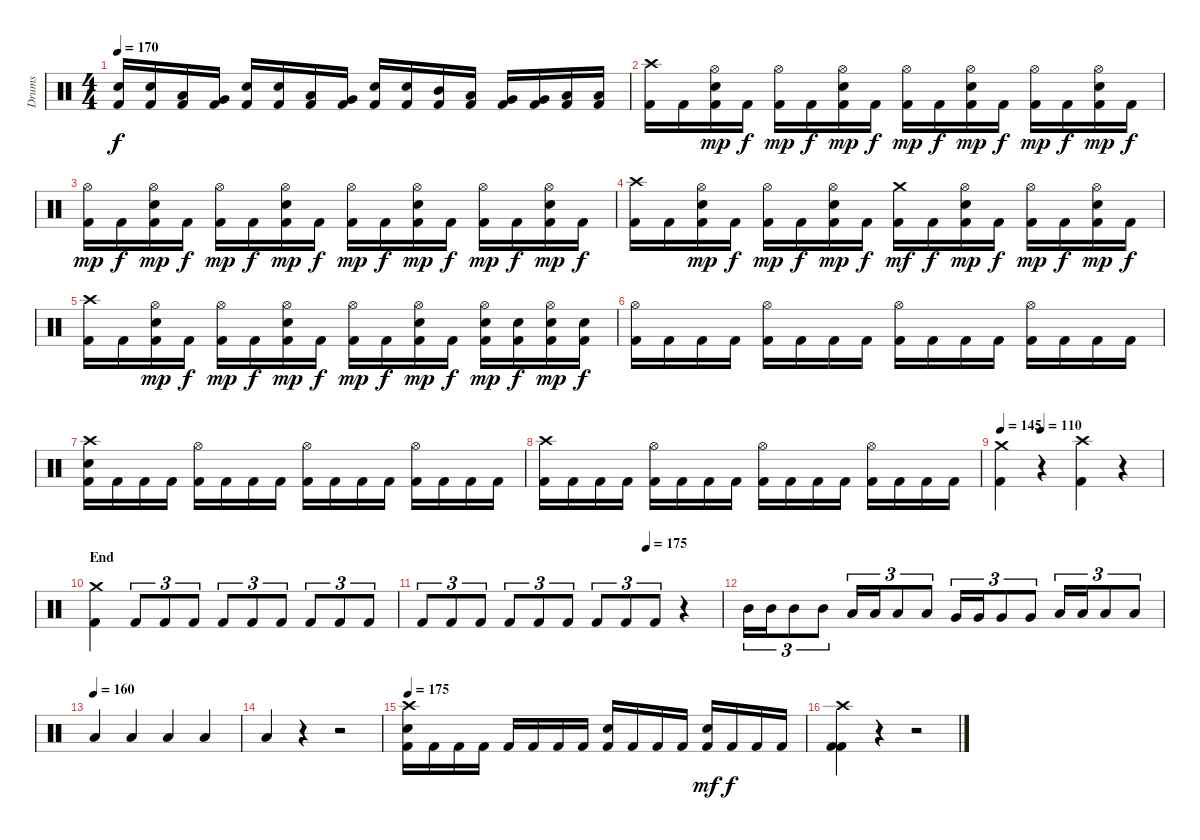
\track ("Drums" "Drums") {instrument percussion}
\staff {score}
\articulation defaults
\ts (4 4)
\tempo 170
\clef neutral
\ks c
("Kick (hit) 2" "Electric Snare (hit)").16{dy f} ("Kick (hit) 2" "Electric Snare (hit)").16 ("Kick (hit) 2" "Low Tom (hit)").16 ("Kick (hit) 2" "Very Low Tom (hit)").16 ("Kick (hit) 2" "Electric Snare (hit)").16 ("Kick (hit) 2" "Electric Snare (hit)").16 ("Kick (hit) 2" "Low Tom (hit)").16 ("Kick (hit) 2" "Very Low Tom (hit)").16 ("Kick (hit) 2" "Electric Snare (hit)").16 ("Kick (hit) 2" "Electric Snare (hit)").16 ("Kick (hit) 2" "Mid Tom (hit)").16 ("Kick (hit) 2" "Low Tom (hit)").16 ("Kick (hit) 2" "Very Low Tom (hit)").16 ("Kick (hit) 2" "Very Low Tom (hit)").16 ("Kick (hit) 2" "Low Floor Tom (hit)").16 ("Kick (hit) 2" "Low Floor Tom (hit)").16 |
("Kick (hit) 2" "Crash high (hit)").16 "Kick (hit) 2".16 ("Kick (hit) 2" "Electric Snare (hit)" "Hi-Hat (open)").16{dy mp} "Kick (hit) 2".16{dy f} ("Kick (hit) 2" "Hi-Hat (open)").16{dy mp} "Kick (hit) 2".16{dy f} ("Kick (hit) 2" "Electric Snare (hit)" "Hi-Hat (open)").16{dy mp} "Kick (hit) 2".16{dy f} ("Kick (hit) 2" "Hi-Hat (open)").16{dy mp} "Kick (hit) 2".16{dy f} ("Kick (hit) 2" "Electric Snare (hit)" "Hi-Hat (open)").16{dy mp} "Kick (hit) 2".16{dy f} ("Kick (hit) 2" "Hi-Hat (open)").16{dy mp} "Kick (hit) 2".16{dy f} ("Kick (hit) 2" "Electric Snare (hit)" "Hi-Hat (open)").16{dy mp} "Kick (hit) 2".16{dy f} |
("Kick (hit) 2" "Hi-Hat (open)").16{dy mp} "Kick (hit) 2".16{dy f} ("Kick (hit) 2" "Electric Snare (hit)" "Hi-Hat (open)").16{dy mp} "Kick (hit) 2".16{dy f} ("Kick (hit) 2" "Hi-Hat (open)").16{dy mp} "Kick (hit) 2".16{dy f} ("Kick (hit) 2" "Electric Snare (hit)" "Hi-Hat (open)").16{dy mp} "Kick (hit) 2".16{dy f} ("Kick (hit) 2" "Hi-Hat (open)").16{dy mp} "Kick (hit) 2".16{dy f} ("Kick (hit) 2" "Electric Snare (hit)" "Hi-Hat (open)").16{dy mp} "Kick (hit) 2".16{dy f} ("Kick (hit) 2" "Hi-Hat (open)").16{dy mp} "Kick (hit) 2".16{dy f} ("Kick (hit) 2" "Electric Snare (hit)" "Hi-Hat (open)").16{dy mp} "Kick (hit) 2".16{dy f} |
("Kick (hit) 2" "Crash high (hit)").16 "Kick (hit) 2".16 ("Kick (hit) 2" "Electric Snare (hit)" "Hi-Hat (open)").16{dy mp} "Kick (hit) 2".16{dy f} ("Kick (hit) 2" "Hi-Hat (open)").16{dy mp} "Kick (hit) 2".16{dy f} ("Kick (hit) 2" "Electric Snare (hit)" "Hi-Hat (open)").16{dy mp} "Kick (hit) 2".16{dy f} ("Kick (hit) 2" "Crash medium (hit)").16{dy mf} "Kick (hit) 2".16{dy f} ("Kick (hit) 2" "Electric Snare (hit)" "Hi-Hat (open)").16{dy mp} "Kick (hit) 2".16{dy f} ("Kick (hit) 2" "Hi-Hat (open)").16{dy mp} "Kick (hit) 2".16{dy f} ("Kick (hit) 2" "Electric Snare (hit)" "Hi-Hat (open)").16{dy mp} "Kick (hit) 2".16{dy f} |
("Kick (hit) 2" "Crash high (hit)").16 "Kick (hit) 2".16 ("Kick (hit) 2" "Electric Snare (hit)" "Hi-Hat (open)").16{dy mp} "Kick (hit) 2".16{dy f} ("Kick (hit) 2" "Hi-Hat (open)").16{dy mp} "Kick (hit) 2".16{dy f} ("Kick (hit) 2" "Electric Snare (hit)" "Hi-Hat (open)").16{dy mp} "Kick (hit) 2".16{dy f} ("Kick (hit) 2" "Hi-Hat (open)").16{dy mp} "Kick (hit) 2".16{dy f} ("Kick (hit) 2" "Electric Snare (hit)" "Hi-Hat (open)").16{dy mp} "Kick (hit) 2".16{dy f} ("Kick (hit) 2" "Electric Snare (hit)" "Hi-Hat (open)").16{dy mp} ("Kick (hit) 2" "Electric Snare (hit)").16{dy f} ("Kick (hit) 2" "Electric Snare (hit)" "Hi-Hat (open)").16{dy mp} ("Kick (hit) 2" "Electric Snare (hit)").16{dy f} |
("Kick (hit) 2" "Hi-Hat (open)").16 "Kick (hit) 2".16 "Kick (hit) 2".16 "Kick (hit) 2".16 ("Kick (hit) 2" "Hi-Hat (open)").16 "Kick (hit) 2".16 "Kick (hit) 2".16 "Kick (hit) 2".16 ("Kick (hit) 2" "Hi-Hat (open)").16 "Kick (hit) 2".16 "Kick (hit) 2".16 "Kick (hit) 2".16 ("Kick (hit) 2" "Hi-Hat (open)").16 "Kick (hit) 2".16 "Kick (hit) 2".16 "Kick (hit) 2".16 |
("Kick (hit) 2" "Electric Snare (hit)" "Crash high (hit)").16 "Kick (hit) 2".16 "Kick (hit) 2".16 "Kick (hit) 2".16 ("Kick (hit) 2" "Hi-Hat (open)").16 "Kick (hit) 2".16 "Kick (hit) 2".16 "Kick (hit) 2".16 ("Kick (hit) 2" "Hi-Hat (open)").16 "Kick (hit) 2".16 "Kick (hit) 2".16 "Kick (hit) 2".16 ("Kick (hit) 2" "Hi-Hat (open)").16 "Kick (hit) 2".16 "Kick (hit) 2".16 "Kick (hit) 2".16 |
("Kick (hit) 2" "Crash high (hit)").16 "Kick (hit) 2".16 "Kick (hit) 2".16 "Kick (hit) 2".16 ("Kick (hit) 2" "Hi-Hat (open)").16 "Kick (hit) 2".16 "Kick (hit) 2".16 "Kick (hit) 2".16 ("Kick (hit) 2" "Hi-Hat (open)").16 "Kick (hit) 2".16 "Kick (hit) 2".16 "Kick (hit) 2".16 ("Kick (hit) 2" "Hi-Hat (open)").16 "Kick (hit) 2".16 "Kick (hit) 2".16 "Kick (hit) 2".16 |
\tempo 145
\tempo (110 0.25)
("Kick (hit) 2" "Crash medium (hit)").4 r.4 ("Kick (hit) 2" "Crash high (hit)").4 r.4 |
\section ("" "End")
("Kick (hit) 2" "Crash medium (hit)").4 "Kick (hit) 2".8{tu (3 2)} "Kick (hit) 2".8{tu (3 2)} "Kick (hit) 2".8{tu (3 2)} "Kick (hit) 2".8{tu (3 2)} "Kick (hit) 2".8{tu (3 2)} "Kick (hit) 2".8{tu (3 2)} "Kick (hit) 2".8{tu (3 2)} "Kick (hit) 2".8{tu (3 2)} "Kick (hit) 2".8{tu (3 2)} |
\tempo (175 0.75)
"Kick (hit) 2".8{tu (3 2)} "Kick (hit) 2".8{tu (3 2)} "Kick (hit) 2".8{tu (3 2)} "Kick (hit) 2".8{tu (3 2)} "Kick (hit) 2".8{tu (3 2)} "Kick (hit) 2".8{tu (3 2)} "Kick (hit) 2".8{tu (3 2)} "Kick (hit) 2".8{tu (3 2)} "Kick (hit) 2".8{tu (3 2)} r.4 |
"Mid Tom (hit)".16{tu (3 2)} "Mid Tom (hit)".16{tu (3 2)} "Mid Tom (hit)".8{tu (3 2)} "Mid Tom (hit)".8{tu (3 2)} "Low Tom (hit)".16{tu (3 2)} "Low Tom (hit)".16{tu (3 2)} "Low Tom (hit)".8{tu (3 2)} "Low Tom (hit)".8{tu (3 2)} "Very Low Tom (hit)".16{tu (3 2)} "Very Low Tom (hit)".16{tu (3 2)} "Very Low Tom (hit)".8{tu (3 2)} "Very Low Tom (hit)".8{tu (3 2)} "Low Floor Tom (hit)".16{tu (3 2)} "Low Floor Tom (hit)".16{tu (3 2)} "Low Floor Tom (hit)".8{tu (3 2)} "Low Floor Tom (hit)".8{tu (3 2)} |
\tempo (160)
"Low Floor Tom (hit)".4 "Low Floor Tom (hit)".4 "Low Floor Tom (hit)".4 "Low Floor Tom (hit)".4 |
"Low Floor Tom (hit)".4 r.4 r.2 |
\tempo 175
("Kick (hit) 2" "Electric Snare (hit)" "Crash high (hit)").16 "Kick (hit) 2".16 "Kick (hit) 2".16 "Kick (hit) 2".16 "Kick (hit) 2".16 "Kick (hit) 2".16 "Kick (hit) 2".16 "Kick (hit) 2".16 ("Kick (hit) 2" "Electric Snare (hit)").16 "Kick (hit) 2".16 "Kick (hit) 2".16 "Kick (hit) 2".16 ("Kick (hit) 2" "Electric Snare (hit)").16{dy mf} "Kick (hit) 2".16{dy f} "Kick (hit) 2".16 "Kick (hit) 2".16 |
("Kick (hit) 2" "Kick (hit) 2" "Crash high (hit)").4 r.4 r.2
